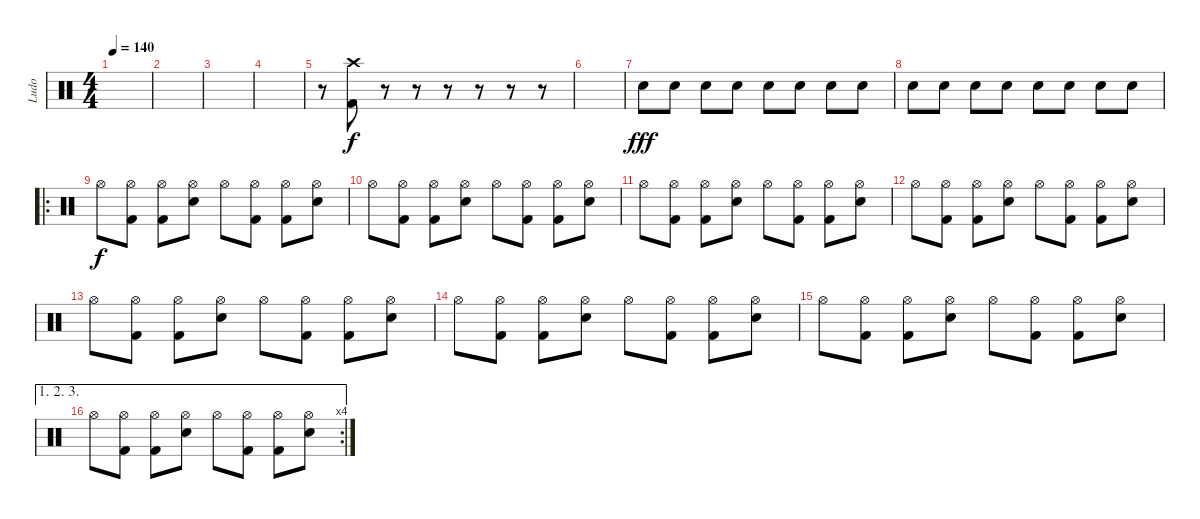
\track ("Ludo" "Ludo") {instrument percussion}
\staff {score}
\articulation defaults
\ts (4 4)
\tempo 140
\clef neutral
\ks c
|
|
|
|
r.8 ("Crash high (hit)" "Kick (hit) 2").8 r.8 r.8 r.8 r.8 r.8 r.8 |
|
"Electric Snare (hit)".8{dy fff} "Electric Snare (hit)".8 "Electric Snare (hit)".8 "Electric Snare (hit)".8 "Electric Snare (hit)".8 "Electric Snare (hit)".8 "Electric Snare (hit)".8 "Electric Snare (hit)".8 |
"Electric Snare (hit)".8 "Electric Snare (hit)".8 "Electric Snare (hit)".8 "Electric Snare (hit)".8 "Electric Snare (hit)".8 "Electric Snare (hit)".8 "Electric Snare (hit)".8 "Electric Snare (hit)".8 |
\ro "Hi-Hat (open)".8{dy f}
("Hi-Hat (open)" "Kick (hit) 2").8 ("Hi-Hat (open)" "Kick (hit) 2").8 ("Hi-Hat (open)" "Electric Snare (hit)").8 "Hi-Hat (open)".8 ("Hi-Hat (open)" "Kick (hit) 2").8 ("Hi-Hat (open)" "Kick (hit) 2").8 ("Hi-Hat (open)" "Electric Snare (hit)").8 |
"Hi-Hat (open)".8 ("Hi-Hat (open)" "Kick (hit) 2").8 ("Hi-Hat (open)" "Kick (hit) 2").8 ("Hi-Hat (open)" "Electric Snare (hit)").8 "Hi-Hat (open)".8 ("Hi-Hat (open)" "Kick (hit) 2").8 ("Hi-Hat (open)" "Kick (hit) 2").8 ("Hi-Hat (open)" "Electric Snare (hit)").8 |
"Hi-Hat (open)".8 ("Hi-Hat (open)" "Kick (hit) 2").8 ("Hi-Hat (open)" "Kick (hit) 2").8 ("Hi-Hat (open)" "Electric Snare (hit)").8 "Hi-Hat (open)".8 ("Hi-Hat (open)" "Kick (hit) 2").8 ("Hi-Hat (open)" "Kick (hit) 2").8 ("Hi-Hat (open)" "Electric Snare (hit)").8 |
"Hi-Hat (open)".8 ("Hi-Hat (open)" "Kick (hit) 2").8 ("Hi-Hat (open)" "Kick (hit) 2").8 ("Hi-Hat (open)" "Electric Snare (hit)").8 "Hi-Hat (open)".8 ("Hi-Hat (open)" "Kick (hit) 2").8 ("Hi-Hat (open)" "Kick (hit) 2").8 ("Hi-Hat (open)" "Electric Snare (hit)").8 |
"Hi-Hat (open)".8 ("Hi-Hat (open)" "Kick (hit) 2").8 ("Hi-Hat (open)" "Kick (hit) 2").8 ("Hi-Hat (open)" "Electric Snare (hit)").8 "Hi-Hat (open)".8 ("Hi-Hat (open)" "Kick (hit) 2").8 ("Hi-Hat (open)" "Kick (hit) 2").8 ("Hi-Hat (open)" "Electric Snare (hit)").8 |
"Hi-Hat (open)".8 ("Hi-Hat (open)" "Kick (hit) 2").8 ("Hi-Hat (open)" "Kick (hit) 2").8 ("Hi-Hat (open)" "Electric Snare (hit)").8 "Hi-Hat (open)".8 ("Hi-Hat (open)" "Kick (hit) 2").8 ("Hi-Hat (open)" "Kick (hit) 2").8 ("Hi-Hat (open)" "Electric Snare (hit)").8 |
"Hi-Hat (open)".8 ("Hi-Hat (open)" "Kick (hit) 2").8 ("Hi-Hat (open)" "Kick (hit) 2").8 ("Hi-Hat (open)" "Electric Snare (hit)").8 "Hi-Hat (open)".8 ("Hi-Hat (open)" "Kick (hit) 2").8 ("Hi-Hat (open)" "Kick (hit) 2").8 ("Hi-Hat (open)" "Electric Snare (hit)").8 |
\ae (1 2 3)
\rc 4 "Hi-Hat (open)".8
("Hi-Hat (open)" "Kick (hit) 2").8 ("Hi-Hat (open)" "Kick (hit) 2").8 ("Hi-Hat (open)" "Electric Snare (hit)").8 "Hi-Hat (open)".8 ("Hi-Hat (open)" "Kick (hit) 2").8 ("Hi-Hat (open)" "Kick (hit) 2").8 ("Hi-Hat (open)" "Electric Snare (hit)").8
